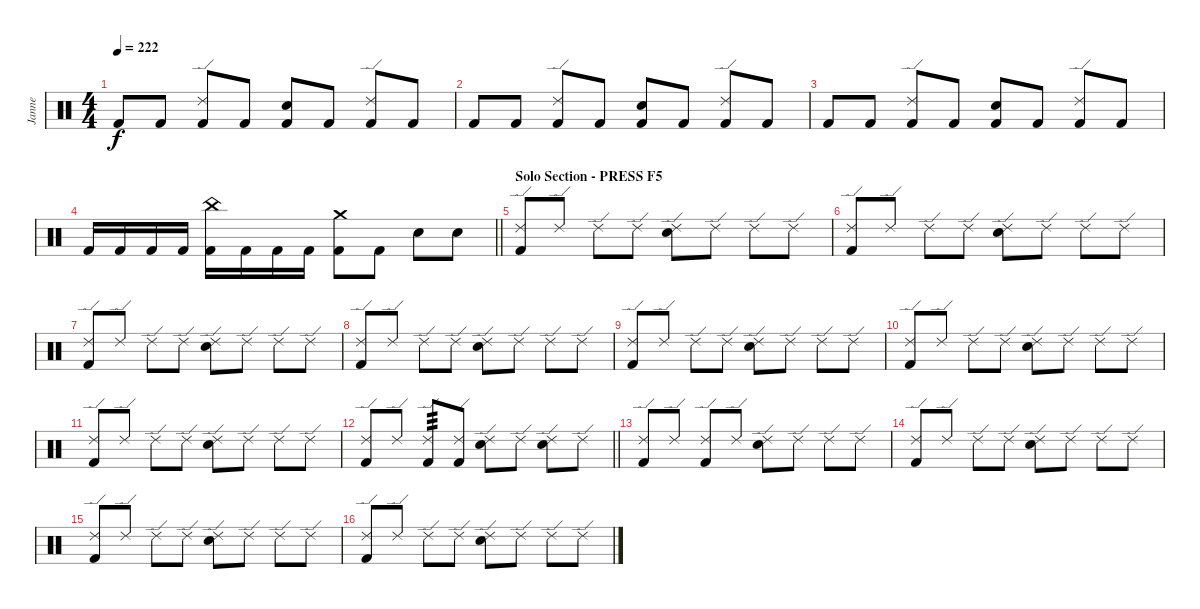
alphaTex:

\track ("Janne" "Janne") {instrument percussion}
\staff {score}
\articulation defaults
\ts (4 4)
\tempo 222
\clef neutral
\ks c "Kick (hit) 2".8{dy f} "Kick (hit) 2".8
("Kick (hit) 2" "Ride (edge) 2").8 "Kick (hit) 2".8 ("Kick (hit) 2" "Electric Snare (hit)").8 "Kick (hit) 2".8 ("Kick (hit) 2" "Ride (edge) 2").8 "Kick (hit) 2".8 |
"Kick (hit) 2".8 "Kick (hit) 2".8 ("Kick (hit) 2" "Ride (edge) 2").8 "Kick (hit) 2".8 ("Kick (hit) 2" "Electric Snare (hit)").8 "Kick (hit) 2".8 ("Kick (hit) 2" "Ride (edge) 2").8 "Kick (hit) 2".8 |
"Kick (hit) 2".8 "Kick (hit) 2".8 ("Kick (hit) 2" "Ride (edge) 2").8 "Kick (hit) 2".8 ("Kick (hit) 2" "Electric Snare (hit)").8 "Kick (hit) 2".8 ("Kick (hit) 2" "Ride (edge) 2").8 "Kick (hit) 2".8 |
\barLineRight lightlight "Kick (hit) 2".16 "Kick (hit) 2".16 "Kick (hit) 2".16 "Kick (hit) 2".16
("Kick (hit) 2" "China (hit)").16 "Kick (hit) 2".16 "Kick (hit) 2".16 "Kick (hit) 2".16 ("Kick (hit) 2" "Crash medium (hit)").8 "Kick (hit) 2".8 "Electric Snare (hit)".8 "Electric Snare (hit)".8 |
\section ("" "Solo Section - PRESS F5")
("Kick (hit) 2" "Ride (edge) 2").8 "Ride (edge) 2".8 "Ride (edge) 2".8 "Ride (edge) 2".8 ("Electric Snare (hit)" "Ride (edge) 2").8 "Ride (edge) 2".8 "Ride (edge) 2".8 "Ride (edge) 2".8 |
("Kick (hit) 2" "Ride (edge) 2").8 "Ride (edge) 2".8 "Ride (edge) 2".8 "Ride (edge) 2".8 ("Electric Snare (hit)" "Ride (edge) 2").8 "Ride (edge) 2".8 "Ride (edge) 2".8 "Ride (edge) 2".8 |
("Kick (hit) 2" "Ride (edge) 2").8 "Ride (edge) 2".8 "Ride (edge) 2".8 "Ride (edge) 2".8 ("Electric Snare (hit)" "Ride (edge) 2").8 "Ride (edge) 2".8 "Ride (edge) 2".8 "Ride (edge) 2".8 |
("Kick (hit) 2" "Ride (edge) 2").8 "Ride (edge) 2".8 "Ride (edge) 2".8 "Ride (edge) 2".8 ("Electric Snare (hit)" "Ride (edge) 2").8 "Ride (edge) 2".8 "Ride (edge) 2".8 "Ride (edge) 2".8 |
("Kick (hit) 2" "Ride (edge) 2").8 "Ride (edge) 2".8 "Ride (edge) 2".8 "Ride (edge) 2".8 ("Electric Snare (hit)" "Ride (edge) 2").8 "Ride (edge) 2".8 "Ride (edge) 2".8 "Ride (edge) 2".8 |
("Kick (hit) 2" "Ride (edge) 2").8 "Ride (edge) 2".8 "Ride (edge) 2".8 "Ride (edge) 2".8 ("Electric Snare (hit)" "Ride (edge) 2").8 "Ride (edge) 2".8 "Ride (edge) 2".8 "Ride (edge) 2".8 |
("Kick (hit) 2" "Ride (edge) 2").8 "Ride (edge) 2".8 "Ride (edge) 2".8 "Ride (edge) 2".8 ("Electric Snare (hit)" "Ride (edge) 2").8 "Ride (edge) 2".8 "Ride (edge) 2".8 "Ride (edge) 2".8 |
\barLineRight lightlight
("Kick (hit) 2" "Ride (edge) 2").8 "Ride (edge) 2".8 ("Kick (hit) 2" "Ride (edge) 2").8{tp 3} ("Kick (hit) 2" "Ride (edge) 2").8 ("Electric Snare (hit)" "Ride (edge) 2").8 "Ride (edge) 2".8 ("Electric Snare (hit)" "Ride (edge) 2").8 "Ride (edge) 2".8 |
\section ("" "")
("Kick (hit) 2" "Ride (edge) 2").8 "Ride (edge) 2".8 ("Kick (hit) 2" "Ride (edge) 2").8 "Ride (edge) 2".8 ("Electric Snare (hit)" "Ride (edge) 2").8 "Ride (edge) 2".8 "Ride (edge) 2".8 "Ride (edge) 2".8 |
("Kick (hit) 2" "Ride (edge) 2").8 "Ride (edge) 2".8 "Ride (edge) 2".8 "Ride (edge) 2".8 ("Electric Snare (hit)" "Ride (edge) 2").8 "Ride (edge) 2".8 "Ride (edge) 2".8 "Ride (edge) 2".8 |
("Kick (hit) 2" "Ride (edge) 2").8 "Ride (edge) 2".8 "Ride (edge) 2".8 "Ride (edge) 2".8 ("Electric Snare (hit)" "Ride (edge) 2").8 "Ride (edge) 2".8 "Ride (edge) 2".8 "Ride (edge) 2".8 |
("Kick (hit) 2" "Ride (edge) 2").8 "Ride (edge) 2".8 "Ride (edge) 2".8 "Ride (edge) 2".8 ("Electric Snare (hit)" "Ride (edge) 2").8 "Ride (edge) 2".8 "Ride (edge) 2".8 "Ride (edge) 2".8
